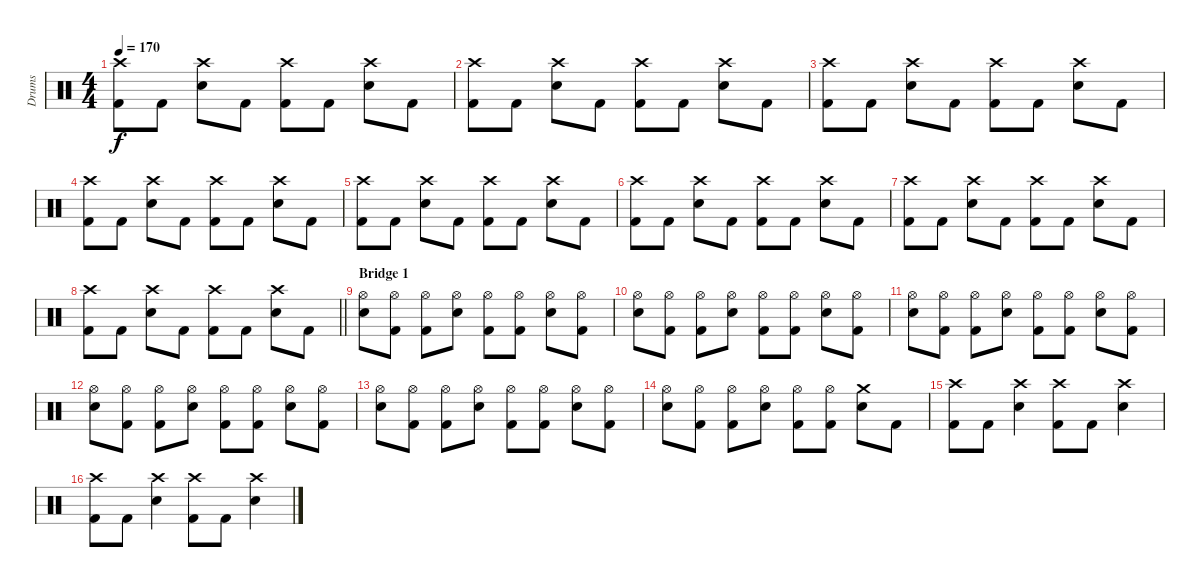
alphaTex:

\track ("Drums" "Drums") {instrument percussion}
\staff {score}
\articulation defaults
\ts (4 4)
\tempo 170
\clef neutral
\ks c
("Crash high (hit)" "Kick (hit) 2").8{dy f} "Kick (hit) 2".8 ("Crash high (hit)" "Snare (hit) 2").8 "Kick (hit) 2".8 ("Crash high (hit)" "Kick (hit) 2").8 "Kick (hit) 2".8 ("Crash high (hit)" "Snare (hit) 2").8 "Kick (hit) 2".8 |
("Crash high (hit)" "Kick (hit) 2").8 "Kick (hit) 2".8 ("Crash high (hit)" "Snare (hit) 2").8 "Kick (hit) 2".8 ("Crash high (hit)" "Kick (hit) 2").8 "Kick (hit) 2".8 ("Crash high (hit)" "Snare (hit) 2").8 "Kick (hit) 2".8 |
("Crash high (hit)" "Kick (hit) 2").8 "Kick (hit) 2".8 ("Crash high (hit)" "Snare (hit) 2").8 "Kick (hit) 2".8 ("Crash high (hit)" "Kick (hit) 2").8 "Kick (hit) 2".8 ("Crash high (hit)" "Snare (hit) 2").8 "Kick (hit) 2".8 |
("Crash high (hit)" "Kick (hit) 2").8 "Kick (hit) 2".8 ("Crash high (hit)" "Snare (hit) 2").8 "Kick (hit) 2".8 ("Crash high (hit)" "Kick (hit) 2").8 "Kick (hit) 2".8 ("Crash high (hit)" "Snare (hit) 2").8 "Kick (hit) 2".8 |
("Crash high (hit)" "Kick (hit) 2").8 "Kick (hit) 2".8 ("Crash high (hit)" "Snare (hit) 2").8 "Kick (hit) 2".8 ("Crash high (hit)" "Kick (hit) 2").8 "Kick (hit) 2".8 ("Crash high (hit)" "Snare (hit) 2").8 "Kick (hit) 2".8 |
("Crash high (hit)" "Kick (hit) 2").8 "Kick (hit) 2".8 ("Crash high (hit)" "Snare (hit) 2").8 "Kick (hit) 2".8 ("Crash high (hit)" "Kick (hit) 2").8 "Kick (hit) 2".8 ("Crash high (hit)" "Snare (hit) 2").8 "Kick (hit) 2".8 |
("Crash high (hit)" "Kick (hit) 2").8 "Kick (hit) 2".8 ("Crash high (hit)" "Snare (hit) 2").8 "Kick (hit) 2".8 ("Crash high (hit)" "Kick (hit) 2").8 "Kick (hit) 2".8 ("Crash high (hit)" "Snare (hit) 2").8 "Kick (hit) 2".8 |
\barLineRight lightlight
("Crash high (hit)" "Kick (hit) 2").8 "Kick (hit) 2".8 ("Crash high (hit)" "Snare (hit) 2").8 "Kick (hit) 2".8 ("Crash high (hit)" "Kick (hit) 2").8 "Kick (hit) 2".8 ("Crash high (hit)" "Snare (hit) 2").8 "Kick (hit) 2".8 |
\section ("" "Bridge 1")
("Hi-Hat (open)" "Snare (hit) 2").8 ("Hi-Hat (open)" "Kick (hit) 2").8 ("Hi-Hat (open)" "Kick (hit) 2").8 ("Hi-Hat (open)" "Snare (hit) 2").8 ("Hi-Hat (open)" "Kick (hit) 2").8 ("Hi-Hat (open)" "Kick (hit) 2").8 ("Hi-Hat (open)" "Snare (hit) 2").8 ("Hi-Hat (open)" "Kick (hit) 2").8 |
("Hi-Hat (open)" "Snare (hit) 2").8 ("Hi-Hat (open)" "Kick (hit) 2").8 ("Hi-Hat (open)" "Kick (hit) 2").8 ("Hi-Hat (open)" "Snare (hit) 2").8 ("Hi-Hat (open)" "Kick (hit) 2").8 ("Hi-Hat (open)" "Kick (hit) 2").8 ("Hi-Hat (open)" "Snare (hit) 2").8 ("Hi-Hat (open)" "Kick (hit) 2").8 |
("Hi-Hat (open)" "Snare (hit) 2").8 ("Hi-Hat (open)" "Kick (hit) 2").8 ("Hi-Hat (open)" "Kick (hit) 2").8 ("Hi-Hat (open)" "Snare (hit) 2").8 ("Hi-Hat (open)" "Kick (hit) 2").8 ("Hi-Hat (open)" "Kick (hit) 2").8 ("Hi-Hat (open)" "Snare (hit) 2").8 ("Hi-Hat (open)" "Kick (hit) 2").8 |
("Hi-Hat (open)" "Snare (hit) 2").8 ("Hi-Hat (open)" "Kick (hit) 2").8 ("Hi-Hat (open)" "Kick (hit) 2").8 ("Hi-Hat (open)" "Snare (hit) 2").8 ("Hi-Hat (open)" "Kick (hit) 2").8 ("Hi-Hat (open)" "Kick (hit) 2").8 ("Hi-Hat (open)" "Snare (hit) 2").8 ("Hi-Hat (open)" "Kick (hit) 2").8 |
("Hi-Hat (open)" "Snare (hit) 2").8 ("Hi-Hat (open)" "Kick (hit) 2").8 ("Hi-Hat (open)" "Kick (hit) 2").8 ("Hi-Hat (open)" "Snare (hit) 2").8 ("Hi-Hat (open)" "Kick (hit) 2").8 ("Hi-Hat (open)" "Kick (hit) 2").8 ("Hi-Hat (open)" "Snare (hit) 2").8 ("Hi-Hat (open)" "Kick (hit) 2").8 |
("Hi-Hat (open)" "Snare (hit) 2").8 ("Hi-Hat (open)" "Kick (hit) 2").8 ("Hi-Hat (open)" "Kick (hit) 2").8 ("Hi-Hat (open)" "Snare (hit) 2").8 ("Hi-Hat (open)" "Kick (hit) 2").8 ("Hi-Hat (open)" "Kick (hit) 2").8 ("Crash medium (hit)" "Snare (hit) 2").8 "Kick (hit) 2".8 |
("Crash high (hit)" "Kick (hit) 2").8 "Kick (hit) 2".8 ("Crash high (hit)" "Snare (hit) 2").4 ("Crash high (hit)" "Kick (hit) 2").8 "Kick (hit) 2".8 ("Crash high (hit)" "Snare (hit) 2").4 |
("Crash high (hit)" "Kick (hit) 2").8 "Kick (hit) 2".8 ("Crash high (hit)" "Snare (hit) 2").4 ("Crash high (hit)" "Kick (hit) 2").8 "Kick (hit) 2".8 ("Crash high (hit)" "Snare (hit) 2").4
